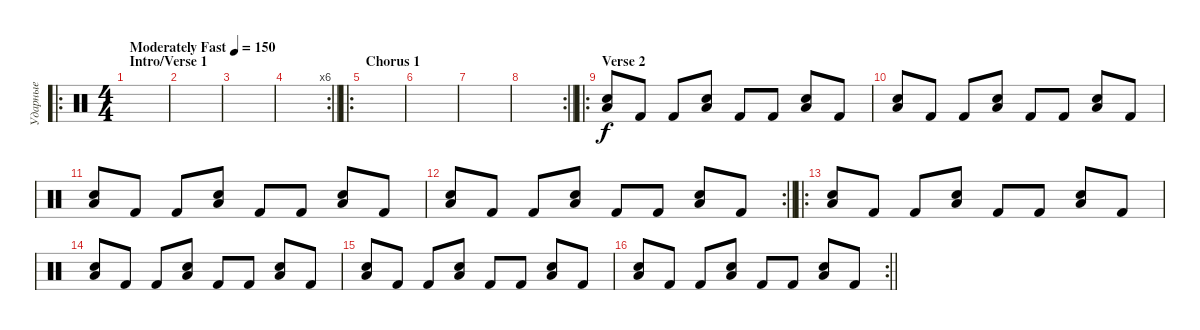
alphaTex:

\track ("Ударные" "Ударные") {instrument percussion}
\staff {score}
\articulation defaults
\ro
\ts (4 4)
\section ("" "Intro/Verse 1")
\tempo (150 "Moderately Fast")
\clef neutral
\ks c
|
|
|
\rc 6
\barLineRight lightlight
|
\ro
\section ("" "Chorus 1")
|
|
|
\rc 2
\barLineRight lightlight
|
\ro
\section ("" "Verse 2")
("Low Tom (hit)" "Electric Snare (hit)").8 "Kick (hit) 2".8 "Kick (hit) 2".8 ("Electric Snare (hit)" "Low Tom (hit)").8 "Kick (hit) 2".8 "Kick (hit) 2".8 ("Electric Snare (hit)" "Low Tom (hit)").8 "Kick (hit) 2".8 |
("Low Tom (hit)" "Electric Snare (hit)").8 "Kick (hit) 2".8 "Kick (hit) 2".8 ("Electric Snare (hit)" "Low Tom (hit)").8 "Kick (hit) 2".8 "Kick (hit) 2".8 ("Electric Snare (hit)" "Low Tom (hit)").8 "Kick (hit) 2".8 |
("Low Tom (hit)" "Electric Snare (hit)").8 "Kick (hit) 2".8 "Kick (hit) 2".8 ("Electric Snare (hit)" "Low Tom (hit)").8 "Kick (hit) 2".8 "Kick (hit) 2".8 ("Electric Snare (hit)" "Low Tom (hit)").8 "Kick (hit) 2".8 |
\rc 2
\barLineRight lightlight
("Low Tom (hit)" "Electric Snare (hit)").8 "Kick (hit) 2".8 "Kick (hit) 2".8 ("Electric Snare (hit)" "Low Tom (hit)").8 "Kick (hit) 2".8 "Kick (hit) 2".8 ("Electric Snare (hit)" "Low Tom (hit)").8 "Kick (hit) 2".8 |
\ro
("Low Tom (hit)" "Electric Snare (hit)").8 "Kick (hit) 2".8 "Kick (hit) 2".8 ("Electric Snare (hit)" "Low Tom (hit)").8 "Kick (hit) 2".8 "Kick (hit) 2".8 ("Electric Snare (hit)" "Low Tom (hit)").8 "Kick (hit) 2".8 |
("Low Tom (hit)" "Electric Snare (hit)").8 "Kick (hit) 2".8 "Kick (hit) 2".8 ("Electric Snare (hit)" "Low Tom (hit)").8 "Kick (hit) 2".8 "Kick (hit) 2".8 ("Electric Snare (hit)" "Low Tom (hit)").8 "Kick (hit) 2".8 |
("Low Tom (hit)" "Electric Snare (hit)").8 "Kick (hit) 2".8 "Kick (hit) 2".8 ("Electric Snare (hit)" "Low Tom (hit)").8 "Kick (hit) 2".8 "Kick (hit) 2".8 ("Electric Snare (hit)" "Low Tom (hit)").8 "Kick (hit) 2".8 |
\rc 2
\barLineRight lightlight
("Low Tom (hit)" "Electric Snare (hit)").8 "Kick (hit) 2".8 "Kick (hit) 2".8 ("Electric Snare (hit)" "Low Tom (hit)").8 "Kick (hit) 2".8 "Kick (hit) 2".8 ("Electric Snare (hit)" "Low Tom (hit)").8 "Kick (hit) 2".8
